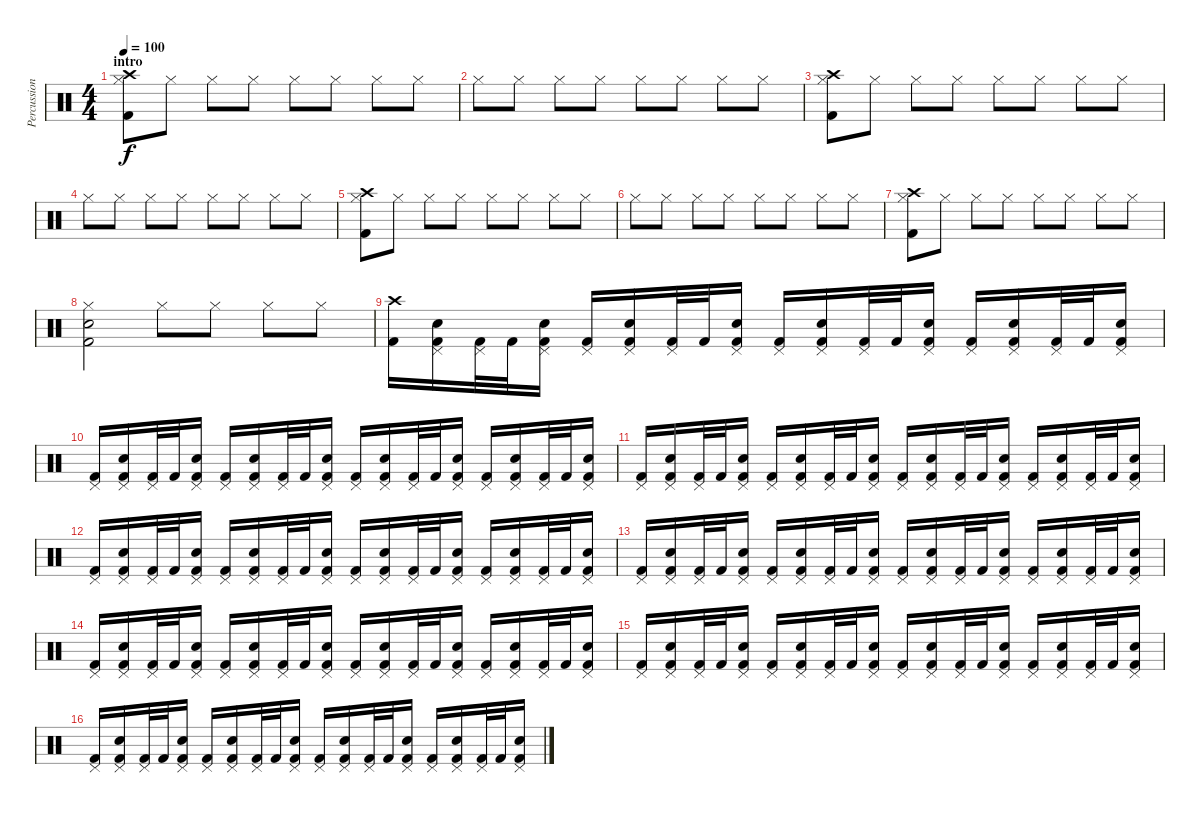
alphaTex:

\track ("Percussion" "Percussion") {instrument percussion}
\staff {score}
\articulation defaults
\ts (4 4)
\section ("" "intro")
\tempo 100
\clef neutral
\ks c
("Crash high (hit)" "Hi-Hat (closed)" "Kick (hit) 2").8{dy f} "Hi-Hat (closed)".8 "Hi-Hat (closed)".8 "Hi-Hat (closed)".8 "Hi-Hat (closed)".8 "Hi-Hat (closed)".8 "Hi-Hat (closed)".8 "Hi-Hat (closed)".8 |
"Hi-Hat (closed)".8 "Hi-Hat (closed)".8 "Hi-Hat (closed)".8 "Hi-Hat (closed)".8 "Hi-Hat (closed)".8 "Hi-Hat (closed)".8 "Hi-Hat (closed)".8 "Hi-Hat (closed)".8 |
("Crash high (hit)" "Hi-Hat (closed)" "Kick (hit) 2").8 "Hi-Hat (closed)".8 "Hi-Hat (closed)".8 "Hi-Hat (closed)".8 "Hi-Hat (closed)".8 "Hi-Hat (closed)".8 "Hi-Hat (closed)".8 "Hi-Hat (closed)".8 |
"Hi-Hat (closed)".8 "Hi-Hat (closed)".8 "Hi-Hat (closed)".8 "Hi-Hat (closed)".8 "Hi-Hat (closed)".8 "Hi-Hat (closed)".8 "Hi-Hat (closed)".8 "Hi-Hat (closed)".8 |
("Crash high (hit)" "Hi-Hat (closed)" "Kick (hit) 2").8 "Hi-Hat (closed)".8 "Hi-Hat (closed)".8 "Hi-Hat (closed)".8 "Hi-Hat (closed)".8 "Hi-Hat (closed)".8 "Hi-Hat (closed)".8 "Hi-Hat (closed)".8 |
"Hi-Hat (closed)".8 "Hi-Hat (closed)".8 "Hi-Hat (closed)".8 "Hi-Hat (closed)".8 "Hi-Hat (closed)".8 "Hi-Hat (closed)".8 "Hi-Hat (closed)".8 "Hi-Hat (closed)".8 |
("Crash high (hit)" "Hi-Hat (closed)" "Kick (hit) 2").8 "Hi-Hat (closed)".8 "Hi-Hat (closed)".8 "Hi-Hat (closed)".8 "Hi-Hat (closed)".8 "Hi-Hat (closed)".8 "Hi-Hat (closed)".8 "Hi-Hat (closed)".8 |
("Hi-Hat (closed)" "Kick (hit) 2" "Snare (hit) 2").2 "Hi-Hat (closed)".8 "Hi-Hat (closed)".8 "Hi-Hat (closed)".8 "Hi-Hat (closed)".8 |
("Crash high (hit)" "Kick (hit) 2").16 ("Pedal Hi-Hat (hit)" "Electric Snare (hit)" "Kick (hit) 2").16 ("Pedal Hi-Hat (hit)" "Kick (hit) 2").32 "Kick (hit) 2".32 ("Pedal Hi-Hat (hit)" "Electric Snare (hit)" "Kick (hit) 2").16 ("Pedal Hi-Hat (hit)" "Kick (hit) 2").16 ("Pedal Hi-Hat (hit)" "Electric Snare (hit)" "Kick (hit) 2").16 ("Pedal Hi-Hat (hit)" "Kick (hit) 2").32 "Kick (hit) 2".32 ("Pedal Hi-Hat (hit)" "Electric Snare (hit)" "Kick (hit) 2").16 ("Pedal Hi-Hat (hit)" "Kick (hit) 2").16 ("Pedal Hi-Hat (hit)" "Electric Snare (hit)" "Kick (hit) 2").16 ("Pedal Hi-Hat (hit)" "Kick (hit) 2").32 "Kick (hit) 2".32 ("Pedal Hi-Hat (hit)" "Electric Snare (hit)" "Kick (hit) 2").16 ("Pedal Hi-Hat (hit)" "Kick (hit) 2").16 ("Pedal Hi-Hat (hit)" "Electric Snare (hit)" "Kick (hit) 2").16 ("Pedal Hi-Hat (hit)" "Kick (hit) 2").32 "Kick (hit) 2".32 ("Pedal Hi-Hat (hit)" "Electric Snare (hit)" "Kick (hit) 2").16 |
("Pedal Hi-Hat (hit)" "Kick (hit) 2").16 ("Pedal Hi-Hat (hit)" "Electric Snare (hit)" "Kick (hit) 2").16 ("Pedal Hi-Hat (hit)" "Kick (hit) 2").32 "Kick (hit) 2".32 ("Pedal Hi-Hat (hit)" "Electric Snare (hit)" "Kick (hit) 2").16 ("Pedal Hi-Hat (hit)" "Kick (hit) 2").16 ("Pedal Hi-Hat (hit)" "Electric Snare (hit)" "Kick (hit) 2").16 ("Pedal Hi-Hat (hit)" "Kick (hit) 2").32 "Kick (hit) 2".32 ("Pedal Hi-Hat (hit)" "Electric Snare (hit)" "Kick (hit) 2").16 ("Pedal Hi-Hat (hit)" "Kick (hit) 2").16 ("Pedal Hi-Hat (hit)" "Electric Snare (hit)" "Kick (hit) 2").16 ("Pedal Hi-Hat (hit)" "Kick (hit) 2").32 "Kick (hit) 2".32 ("Pedal Hi-Hat (hit)" "Electric Snare (hit)" "Kick (hit) 2").16 ("Pedal Hi-Hat (hit)" "Kick (hit) 2").16 ("Pedal Hi-Hat (hit)" "Electric Snare (hit)" "Kick (hit) 2").16 ("Pedal Hi-Hat (hit)" "Kick (hit) 2").32 "Kick (hit) 2".32 ("Pedal Hi-Hat (hit)" "Electric Snare (hit)" "Kick (hit) 2").16 |
("Pedal Hi-Hat (hit)" "Kick (hit) 2").16 ("Pedal Hi-Hat (hit)" "Electric Snare (hit)" "Kick (hit) 2").16 ("Pedal Hi-Hat (hit)" "Kick (hit) 2").32 "Kick (hit) 2".32 ("Pedal Hi-Hat (hit)" "Electric Snare (hit)" "Kick (hit) 2").16 ("Pedal Hi-Hat (hit)" "Kick (hit) 2").16 ("Pedal Hi-Hat (hit)" "Electric Snare (hit)" "Kick (hit) 2").16 ("Pedal Hi-Hat (hit)" "Kick (hit) 2").32 "Kick (hit) 2".32 ("Pedal Hi-Hat (hit)" "Electric Snare (hit)" "Kick (hit) 2").16 ("Pedal Hi-Hat (hit)" "Kick (hit) 2").16 ("Pedal Hi-Hat (hit)" "Electric Snare (hit)" "Kick (hit) 2").16 ("Pedal Hi-Hat (hit)" "Kick (hit) 2").32 "Kick (hit) 2".32 ("Pedal Hi-Hat (hit)" "Electric Snare (hit)" "Kick (hit) 2").16 ("Pedal Hi-Hat (hit)" "Kick (hit) 2").16 ("Pedal Hi-Hat (hit)" "Electric Snare (hit)" "Kick (hit) 2").16 ("Pedal Hi-Hat (hit)" "Kick (hit) 2").32 "Kick (hit) 2".32 ("Pedal Hi-Hat (hit)" "Electric Snare (hit)" "Kick (hit) 2").16 |
("Pedal Hi-Hat (hit)" "Kick (hit) 2").16 ("Pedal Hi-Hat (hit)" "Electric Snare (hit)" "Kick (hit) 2").16 ("Pedal Hi-Hat (hit)" "Kick (hit) 2").32 "Kick (hit) 2".32 ("Pedal Hi-Hat (hit)" "Electric Snare (hit)" "Kick (hit) 2").16 ("Pedal Hi-Hat (hit)" "Kick (hit) 2").16 ("Pedal Hi-Hat (hit)" "Electric Snare (hit)" "Kick (hit) 2").16 ("Pedal Hi-Hat (hit)" "Kick (hit) 2").32 "Kick (hit) 2".32 ("Pedal Hi-Hat (hit)" "Electric Snare (hit)" "Kick (hit) 2").16 ("Pedal Hi-Hat (hit)" "Kick (hit) 2").16 ("Pedal Hi-Hat (hit)" "Electric Snare (hit)" "Kick (hit) 2").16 ("Pedal Hi-Hat (hit)" "Kick (hit) 2").32 "Kick (hit) 2".32 ("Pedal Hi-Hat (hit)" "Electric Snare (hit)" "Kick (hit) 2").16 ("Pedal Hi-Hat (hit)" "Kick (hit) 2").16 ("Pedal Hi-Hat (hit)" "Electric Snare (hit)" "Kick (hit) 2").16 ("Pedal Hi-Hat (hit)" "Kick (hit) 2").32 "Kick (hit) 2".32 ("Pedal Hi-Hat (hit)" "Electric Snare (hit)" "Kick (hit) 2").16 |
("Pedal Hi-Hat (hit)" "Kick (hit) 2").16 ("Pedal Hi-Hat (hit)" "Electric Snare (hit)" "Kick (hit) 2").16 ("Pedal Hi-Hat (hit)" "Kick (hit) 2").32 "Kick (hit) 2".32 ("Pedal Hi-Hat (hit)" "Electric Snare (hit)" "Kick (hit) 2").16 ("Pedal Hi-Hat (hit)" "Kick (hit) 2").16 ("Pedal Hi-Hat (hit)" "Electric Snare (hit)" "Kick (hit) 2").16 ("Pedal Hi-Hat (hit)" "Kick (hit) 2").32 "Kick (hit) 2".32 ("Pedal Hi-Hat (hit)" "Electric Snare (hit)" "Kick (hit) 2").16 ("Pedal Hi-Hat (hit)" "Kick (hit) 2").16 ("Pedal Hi-Hat (hit)" "Electric Snare (hit)" "Kick (hit) 2").16 ("Pedal Hi-Hat (hit)" "Kick (hit) 2").32 "Kick (hit) 2".32 ("Pedal Hi-Hat (hit)" "Electric Snare (hit)" "Kick (hit) 2").16 ("Pedal Hi-Hat (hit)" "Kick (hit) 2").16 ("Pedal Hi-Hat (hit)" "Electric Snare (hit)" "Kick (hit) 2").16 ("Pedal Hi-Hat (hit)" "Kick (hit) 2").32 "Kick (hit) 2".32 ("Pedal Hi-Hat (hit)" "Electric Snare (hit)" "Kick (hit) 2").16 |
("Pedal Hi-Hat (hit)" "Kick (hit) 2").16 ("Pedal Hi-Hat (hit)" "Electric Snare (hit)" "Kick (hit) 2").16 ("Pedal Hi-Hat (hit)" "Kick (hit) 2").32 "Kick (hit) 2".32 ("Pedal Hi-Hat (hit)" "Electric Snare (hit)" "Kick (hit) 2").16 ("Pedal Hi-Hat (hit)" "Kick (hit) 2").16 ("Pedal Hi-Hat (hit)" "Electric Snare (hit)" "Kick (hit) 2").16 ("Pedal Hi-Hat (hit)" "Kick (hit) 2").32 "Kick (hit) 2".32 ("Pedal Hi-Hat (hit)" "Electric Snare (hit)" "Kick (hit) 2").16 ("Pedal Hi-Hat (hit)" "Kick (hit) 2").16 ("Pedal Hi-Hat (hit)" "Electric Snare (hit)" "Kick (hit) 2").16 ("Pedal Hi-Hat (hit)" "Kick (hit) 2").32 "Kick (hit) 2".32 ("Pedal Hi-Hat (hit)" "Electric Snare (hit)" "Kick (hit) 2").16 ("Pedal Hi-Hat (hit)" "Kick (hit) 2").16 ("Pedal Hi-Hat (hit)" "Electric Snare (hit)" "Kick (hit) 2").16 ("Pedal Hi-Hat (hit)" "Kick (hit) 2").32 "Kick (hit) 2".32 ("Pedal Hi-Hat (hit)" "Electric Snare (hit)" "Kick (hit) 2").16 |
("Pedal Hi-Hat (hit)" "Kick (hit) 2").16 ("Pedal Hi-Hat (hit)" "Electric Snare (hit)" "Kick (hit) 2").16 ("Pedal Hi-Hat (hit)" "Kick (hit) 2").32 "Kick (hit) 2".32 ("Pedal Hi-Hat (hit)" "Electric Snare (hit)" "Kick (hit) 2").16 ("Pedal Hi-Hat (hit)" "Kick (hit) 2").16 ("Pedal Hi-Hat (hit)" "Electric Snare (hit)" "Kick (hit) 2").16 ("Pedal Hi-Hat (hit)" "Kick (hit) 2").32 "Kick (hit) 2".32 ("Pedal Hi-Hat (hit)" "Electric Snare (hit)" "Kick (hit) 2").16 ("Pedal Hi-Hat (hit)" "Kick (hit) 2").16 ("Pedal Hi-Hat (hit)" "Electric Snare (hit)" "Kick (hit) 2").16 ("Pedal Hi-Hat (hit)" "Kick (hit) 2").32 "Kick (hit) 2".32 ("Pedal Hi-Hat (hit)" "Electric Snare (hit)" "Kick (hit) 2").16 ("Pedal Hi-Hat (hit)" "Kick (hit) 2").16 ("Pedal Hi-Hat (hit)" "Electric Snare (hit)" "Kick (hit) 2").16 ("Pedal Hi-Hat (hit)" "Kick (hit) 2").32 "Kick (hit) 2".32 ("Pedal Hi-Hat (hit)" "Electric Snare (hit)" "Kick (hit) 2").16 |
("Pedal Hi-Hat (hit)" "Kick (hit) 2").16 ("Pedal Hi-Hat (hit)" "Electric Snare (hit)" "Kick (hit) 2").16 ("Pedal Hi-Hat (hit)" "Kick (hit) 2").32 "Kick (hit) 2".32 ("Pedal Hi-Hat (hit)" "Electric Snare (hit)" "Kick (hit) 2").16 ("Pedal Hi-Hat (hit)" "Kick (hit) 2").16 ("Pedal Hi-Hat (hit)" "Electric Snare (hit)" "Kick (hit) 2").16 ("Pedal Hi-Hat (hit)" "Kick (hit) 2").32 "Kick (hit) 2".32 ("Pedal Hi-Hat (hit)" "Electric Snare (hit)" "Kick (hit) 2").16 ("Pedal Hi-Hat (hit)" "Kick (hit) 2").16 ("Pedal Hi-Hat (hit)" "Electric Snare (hit)" "Kick (hit) 2").16 ("Pedal Hi-Hat (hit)" "Kick (hit) 2").32 "Kick (hit) 2".32 ("Pedal Hi-Hat (hit)" "Electric Snare (hit)" "Kick (hit) 2").16 ("Pedal Hi-Hat (hit)" "Kick (hit) 2").16 ("Pedal Hi-Hat (hit)" "Electric Snare (hit)" "Kick (hit) 2").16 ("Pedal Hi-Hat (hit)" "Kick (hit) 2").32 "Kick (hit) 2".32 ("Pedal Hi-Hat (hit)" "Electric Snare (hit)" "Kick (hit) 2").16
